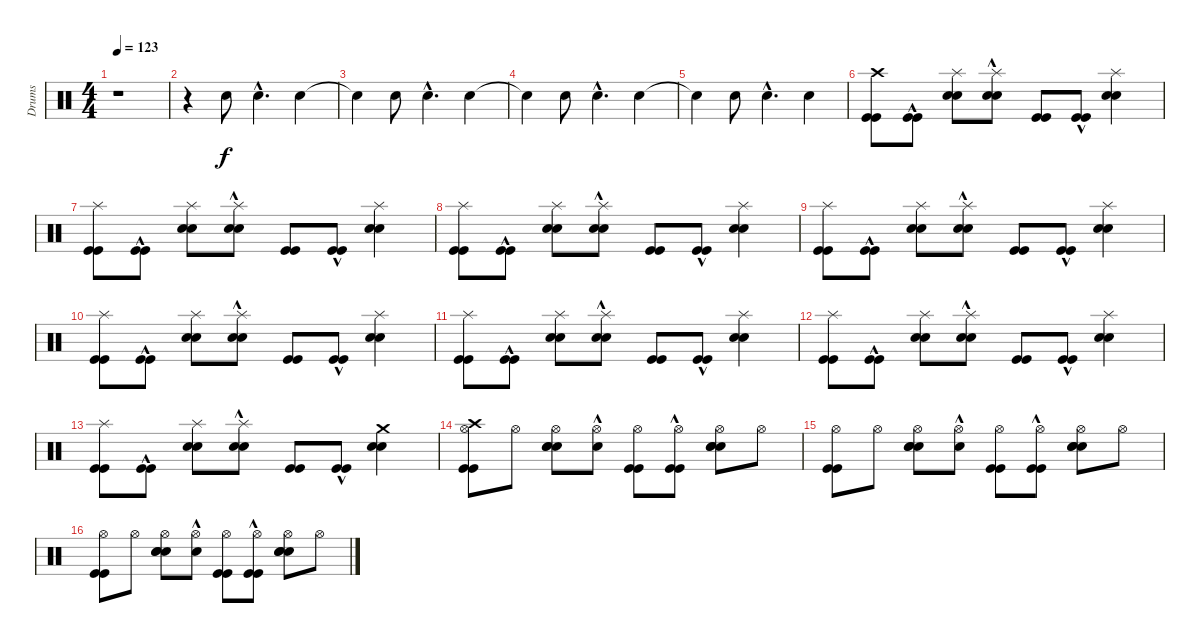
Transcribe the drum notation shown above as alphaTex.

\track ("Drums" "Drums") {instrument percussion}
\staff {score}
\articulation defaults
\ts (4 4)
\tempo 123
\clef neutral
\ks c
r.1{dy f volume 14} |
r.4 "Hand Clap (hit)".8 "Hand Clap (hit)"{hac}.4{d} "Hand Clap (hit)".4 |
"Snare (hit)"{t}.4 "Hand Clap (hit)".8 "Hand Clap (hit)"{hac}.4{d} "Hand Clap (hit)".4 |
"Snare (hit)"{t}.4 "Hand Clap (hit)".8 "Hand Clap (hit)"{hac}.4{d} "Hand Clap (hit)".4 |
"Snare (hit)"{t}.4 "Hand Clap (hit)".8 "Hand Clap (hit)"{hac}.4{d} "Hand Clap (hit)".4 |
("Kick (hit)" "Kick (hit)" "Crash high (hit)").8{volume 16} ("Kick (hit)"{hac} "Kick (hit)"{hac}).8 ("Snare (hit) 2" "Snare (hit) 2" "Splash (hit)").8 ("Snare (hit) 2"{hac} "Snare (hit) 2"{hac} "Splash (hit)"{hac}).8 ("Kick (hit)" "Kick (hit)").8 ("Kick (hit)"{hac} "Kick (hit)"{hac}).8 ("Snare (hit) 2" "Snare (hit) 2" "Splash (hit)").4 |
("Kick (hit)" "Kick (hit)" "Splash (hit)").8 ("Kick (hit)"{hac} "Kick (hit)"{hac}).8 ("Snare (hit) 2" "Snare (hit) 2" "Splash (hit)").8 ("Snare (hit) 2"{hac} "Snare (hit) 2"{hac} "Splash (hit)"{hac}).8 ("Kick (hit)" "Kick (hit)").8 ("Kick (hit)"{hac} "Kick (hit)"{hac}).8 ("Snare (hit) 2" "Snare (hit) 2" "Splash (hit)").4 |
("Kick (hit)" "Kick (hit)" "Splash (hit)").8 ("Kick (hit)"{hac} "Kick (hit)"{hac}).8 ("Snare (hit) 2" "Snare (hit) 2" "Splash (hit)").8 ("Snare (hit) 2"{hac} "Snare (hit) 2"{hac} "Splash (hit)"{hac}).8 ("Kick (hit)" "Kick (hit)").8 ("Kick (hit)"{hac} "Kick (hit)"{hac}).8 ("Snare (hit) 2" "Snare (hit) 2" "Splash (hit)").4 |
("Kick (hit)" "Kick (hit)" "Splash (hit)").8 ("Kick (hit)"{hac} "Kick (hit)"{hac}).8 ("Snare (hit) 2" "Snare (hit) 2" "Splash (hit)").8 ("Snare (hit) 2"{hac} "Snare (hit) 2"{hac} "Splash (hit)"{hac}).8 ("Kick (hit)" "Kick (hit)").8 ("Kick (hit)"{hac} "Kick (hit)"{hac}).8 ("Snare (hit) 2" "Snare (hit) 2" "Splash (hit)").4 |
("Kick (hit)" "Kick (hit)" "Splash (hit)").8 ("Kick (hit)"{hac} "Kick (hit)"{hac}).8 ("Snare (hit) 2" "Snare (hit) 2" "Splash (hit)").8 ("Snare (hit) 2"{hac} "Snare (hit) 2"{hac} "Splash (hit)"{hac}).8 ("Kick (hit)" "Kick (hit)").8 ("Kick (hit)"{hac} "Kick (hit)"{hac}).8 ("Snare (hit) 2" "Snare (hit) 2" "Splash (hit)").4 |
("Kick (hit)" "Kick (hit)" "Splash (hit)").8 ("Kick (hit)"{hac} "Kick (hit)"{hac}).8 ("Snare (hit) 2" "Snare (hit) 2" "Splash (hit)").8 ("Snare (hit) 2"{hac} "Snare (hit) 2"{hac} "Splash (hit)"{hac}).8 ("Kick (hit)" "Kick (hit)").8 ("Kick (hit)"{hac} "Kick (hit)"{hac}).8 ("Snare (hit) 2" "Snare (hit) 2" "Splash (hit)").4 |
("Kick (hit)" "Kick (hit)" "Splash (hit)").8 ("Kick (hit)"{hac} "Kick (hit)"{hac}).8 ("Snare (hit) 2" "Snare (hit) 2" "Splash (hit)").8 ("Snare (hit) 2"{hac} "Snare (hit) 2"{hac} "Splash (hit)"{hac}).8 ("Kick (hit)" "Kick (hit)").8 ("Kick (hit)"{hac} "Kick (hit)"{hac}).8 ("Snare (hit) 2" "Snare (hit) 2" "Splash (hit)").4 |
("Kick (hit)" "Kick (hit)" "Splash (hit)").8 ("Kick (hit)"{hac} "Kick (hit)"{hac}).8 ("Snare (hit) 2" "Snare (hit) 2" "Splash (hit)").8 ("Snare (hit) 2"{hac} "Snare (hit) 2"{hac} "Splash (hit)"{hac}).8 ("Kick (hit)" "Kick (hit)").8 ("Kick (hit)"{hac} "Kick (hit)"{hac}).8 ("Snare (hit) 2" "Snare (hit) 2" "Crash medium (hit)").4 |
("Kick (hit)" "Kick (hit)" "Hi-Hat (open)" "Crash high (hit)").8 "Hi-Hat (open)".8 ("Snare (hit) 2" "Snare (hit) 2" "Hand Clap (hit)" "Hi-Hat (open)").8 ("Hand Clap (hit)"{hac} "Hi-Hat (open)").8 ("Kick (hit)" "Kick (hit)" "Hi-Hat (open)").8 ("Kick (hit)"{hac} "Kick (hit)"{hac} "Hi-Hat (open)").8 ("Snare (hit) 2" "Snare (hit) 2" "Hand Clap (hit)" "Hi-Hat (open)").8 "Hi-Hat (open)".8 |
("Kick (hit)" "Kick (hit)" "Hi-Hat (open)").8 "Hi-Hat (open)".8 ("Snare (hit) 2" "Snare (hit) 2" "Hand Clap (hit)" "Hi-Hat (open)").8 ("Hand Clap (hit)"{hac} "Hi-Hat (open)").8 ("Kick (hit)" "Kick (hit)" "Hi-Hat (open)").8 ("Kick (hit)"{hac} "Kick (hit)"{hac} "Hi-Hat (open)").8 ("Snare (hit) 2" "Snare (hit) 2" "Hand Clap (hit)" "Hi-Hat (open)").8 "Hi-Hat (open)".8 |
("Kick (hit)" "Kick (hit)" "Hi-Hat (open)").8 "Hi-Hat (open)".8 ("Snare (hit) 2" "Snare (hit) 2" "Hand Clap (hit)" "Hi-Hat (open)").8 ("Hand Clap (hit)"{hac} "Hi-Hat (open)").8 ("Kick (hit)" "Kick (hit)" "Hi-Hat (open)").8 ("Kick (hit)"{hac} "Kick (hit)"{hac} "Hi-Hat (open)").8 ("Snare (hit) 2" "Snare (hit) 2" "Hand Clap (hit)" "Hi-Hat (open)").8 "Hi-Hat (open)".8
